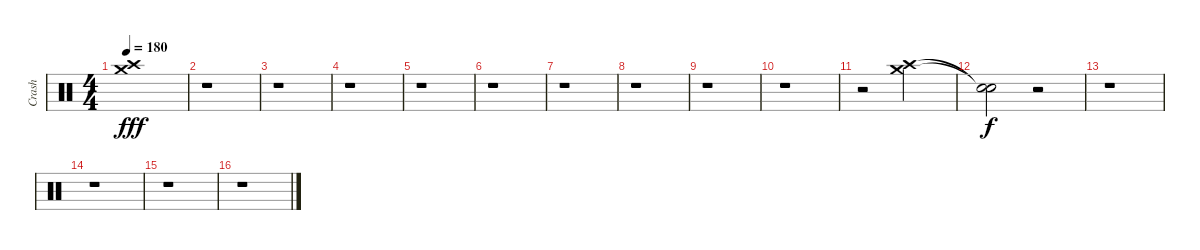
\track ("Crash" "Crash") {instrument percussion}
\staff {score}
\articulation defaults
\ts (4 4)
\tempo 180
\clef neutral
\ks c
("Crash high (hit)" "Crash medium (hit)").1{dy fff} |
r.1 |
r.1 |
r.1 |
r.1 |
r.1 |
r.1 |
r.1 |
r.1 |
r.1 |
r.2 ("Crash high (hit)" "Crash medium (hit)").2 |
("Snare (hit)"{t} "Snare (hit)"{t}).2{dy f} r.2 |
r.1 |
r.1 |
r.1 |
r.1
